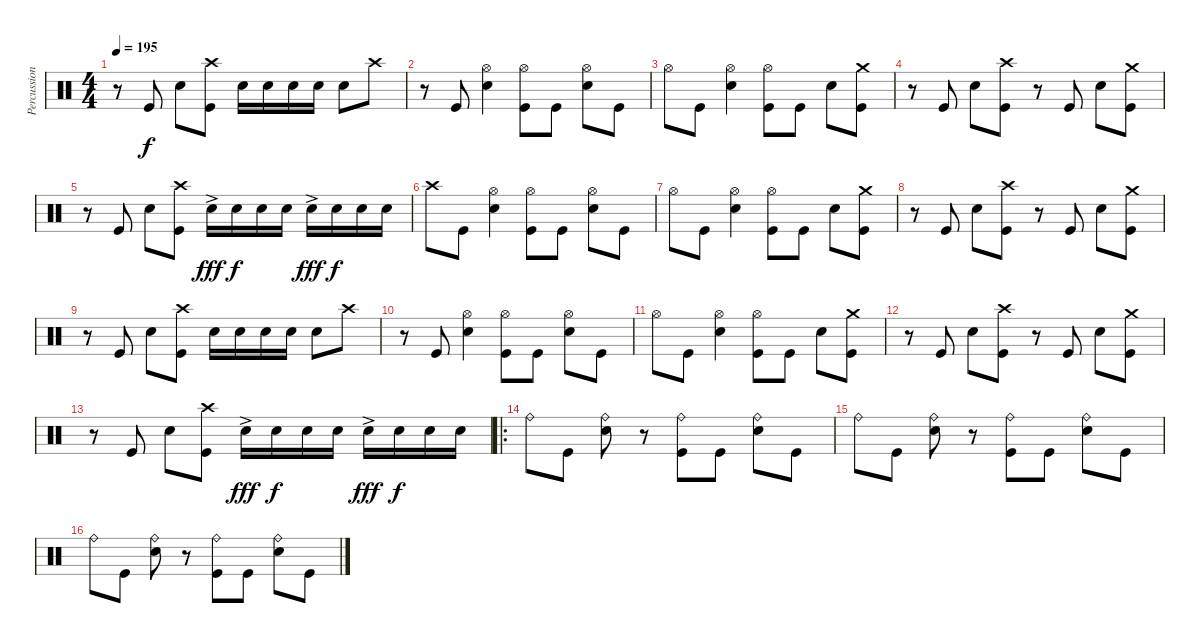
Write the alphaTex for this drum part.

\track ("Percussion" "Percussion") {instrument percussion}
\staff {score}
\articulation defaults
\ts (4 4)
\tempo 195
\clef neutral
\ks c
r.8{dy f} "Kick (hit)".8 "Electric Snare (hit)".8 ("Crash high (hit)" "Kick (hit)").8 "Electric Snare (hit)".16 "Electric Snare (hit)".16 "Electric Snare (hit)".16 "Electric Snare (hit)".16 "Electric Snare (hit)".8 "Crash high (hit)".8 |
r.8 "Kick (hit)".8 ("Hi-Hat (open)" "Electric Snare (hit)").4 ("Hi-Hat (open)" "Kick (hit)").8 "Kick (hit)".8 ("Hi-Hat (open)" "Electric Snare (hit)").8 "Kick (hit)".8 |
"Hi-Hat (open)".8 "Kick (hit)".8 ("Hi-Hat (open)" "Electric Snare (hit)").4 ("Hi-Hat (open)" "Kick (hit)").8 "Kick (hit)".8 "Electric Snare (hit)".8 ("Crash medium (hit)" "Kick (hit)").8 |
r.8 "Kick (hit)".8 "Electric Snare (hit)".8 ("Crash high (hit)" "Kick (hit)").8 r.8 "Kick (hit)".8 "Electric Snare (hit)".8 ("Crash medium (hit)" "Kick (hit)").8 |
r.8 "Kick (hit)".8 "Electric Snare (hit)".8 ("Crash high (hit)" "Kick (hit)").8 "Electric Snare (hit)"{ac}.16{dy fff} "Electric Snare (hit)".16{dy f} "Electric Snare (hit)".16 "Electric Snare (hit)".16 "Electric Snare (hit)"{ac}.16{dy fff} "Electric Snare (hit)".16{dy f} "Electric Snare (hit)".16 "Electric Snare (hit)".16 |
"Crash high (hit)".8 "Kick (hit)".8 ("Hi-Hat (open)" "Electric Snare (hit)").4 ("Hi-Hat (open)" "Kick (hit)").8 "Kick (hit)".8 ("Hi-Hat (open)" "Electric Snare (hit)").8 "Kick (hit)".8 |
"Hi-Hat (open)".8 "Kick (hit)".8 ("Hi-Hat (open)" "Electric Snare (hit)").4 ("Hi-Hat (open)" "Kick (hit)").8 "Kick (hit)".8 "Electric Snare (hit)".8 ("Crash medium (hit)" "Kick (hit)").8 |
r.8 "Kick (hit)".8 "Electric Snare (hit)".8 ("Crash high (hit)" "Kick (hit)").8 r.8 "Kick (hit)".8 "Electric Snare (hit)".8 ("Crash medium (hit)" "Kick (hit)").8 |
r.8 "Kick (hit)".8 "Electric Snare (hit)".8 ("Crash high (hit)" "Kick (hit)").8 "Electric Snare (hit)".16 "Electric Snare (hit)".16 "Electric Snare (hit)".16 "Electric Snare (hit)".16 "Electric Snare (hit)".8 "Crash high (hit)".8 |
r.8 "Kick (hit)".8 ("Hi-Hat (open)" "Electric Snare (hit)").4 ("Hi-Hat (open)" "Kick (hit)").8 "Kick (hit)".8 ("Hi-Hat (open)" "Electric Snare (hit)").8 "Kick (hit)".8 |
"Hi-Hat (open)".8 "Kick (hit)".8 ("Hi-Hat (open)" "Electric Snare (hit)").4 ("Hi-Hat (open)" "Kick (hit)").8 "Kick (hit)".8 "Electric Snare (hit)".8 ("Crash medium (hit)" "Kick (hit)").8 |
r.8 "Kick (hit)".8 "Electric Snare (hit)".8 ("Crash high (hit)" "Kick (hit)").8 r.8 "Kick (hit)".8 "Electric Snare (hit)".8 ("Crash medium (hit)" "Kick (hit)").8 |
r.8 "Kick (hit)".8 "Electric Snare (hit)".8 ("Crash high (hit)" "Kick (hit)").8 "Electric Snare (hit)"{ac}.16{dy fff} "Electric Snare (hit)".16{dy f} "Electric Snare (hit)".16 "Electric Snare (hit)".16 "Electric Snare (hit)"{ac}.16{dy fff} "Electric Snare (hit)".16{dy f} "Electric Snare (hit)".16 "Electric Snare (hit)".16 |
\ro "Ride (bell)".8 "Kick (hit)".8
("Ride (bell)" "Electric Snare (hit)").8 r.8 ("Ride (bell)" "Kick (hit)").8 "Kick (hit)".8 ("Ride (bell)" "Electric Snare (hit)").8 "Kick (hit)".8 |
"Ride (bell)".8 "Kick (hit)".8 ("Ride (bell)" "Electric Snare (hit)").8 r.8 ("Ride (bell)" "Kick (hit)").8 "Kick (hit)".8 ("Ride (bell)" "Electric Snare (hit)").8 "Kick (hit)".8 |
"Ride (bell)".8 "Kick (hit)".8 ("Ride (bell)" "Electric Snare (hit)").8 r.8 ("Ride (bell)" "Kick (hit)").8 "Kick (hit)".8 ("Ride (bell)" "Electric Snare (hit)").8 "Kick (hit)".8
